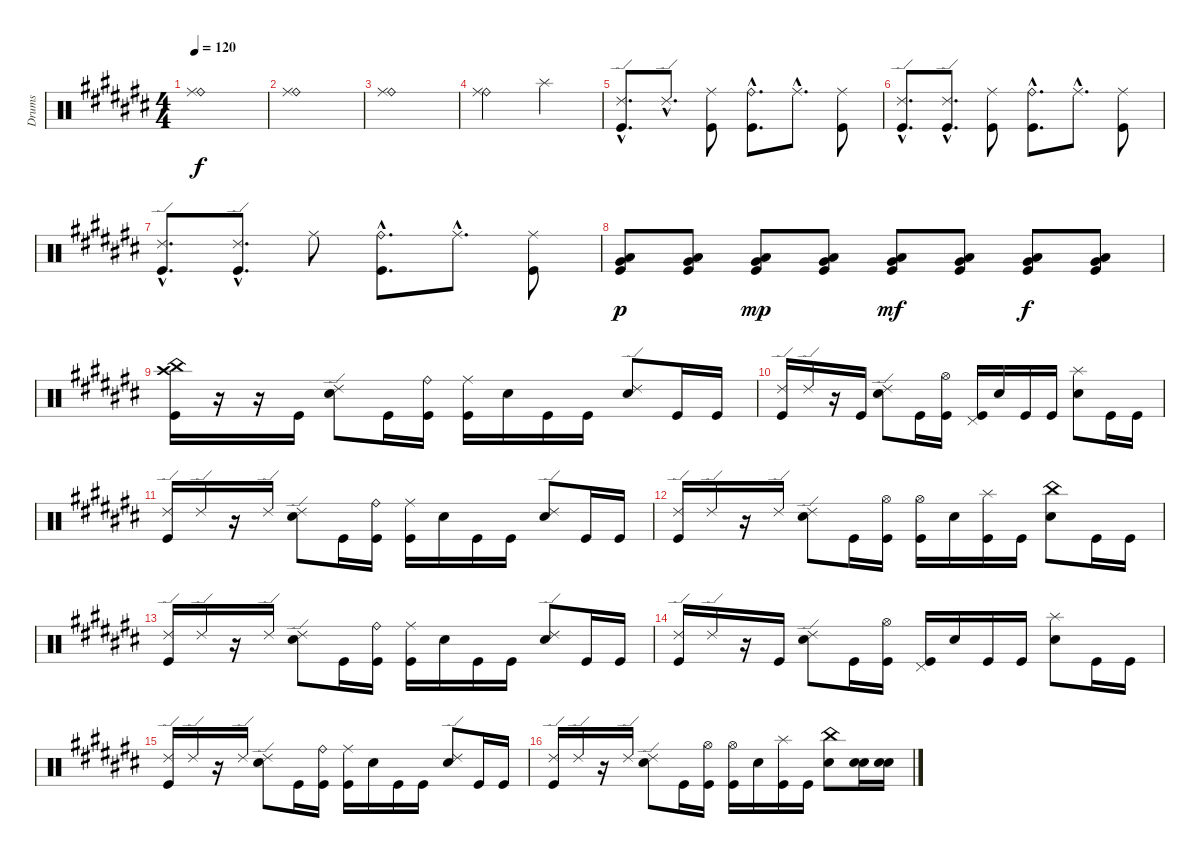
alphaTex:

\track ("Drums" "Drums") {instrument percussion}
\staff {score}
\articulation defaults
\ts (4 4)
\tempo 120
\clef neutral
\ks c#
("Ride (bell)" "Ride (middle)").1{dy f} |
("Ride (bell)" "Ride (middle)").1 |
("Ride (bell)" "Ride (middle)").1 |
("Ride (bell)" "Ride (middle)").2 "Splash (hit)".2 |
("Ride (edge) 2"{hac} "Kick (hit)"{hac}).8{d} "Ride (edge) 2"{hac}.8{d} ("Ride (middle)" "Kick (hit)").8 ("Ride (bell)"{hac} "Kick (hit)"{hac}).8{d} "Ride (middle)"{hac}.8{d} ("Ride (middle)" "Kick (hit)").8 |
("Ride (edge) 2"{hac} "Kick (hit)"{hac}).8{d} ("Ride (edge) 2"{hac} "Kick (hit)"{hac}).8{d} ("Ride (middle)" "Kick (hit)").8 ("Ride (bell)"{hac} "Kick (hit)"{hac}).8{d} "Ride (middle)"{hac}.8{d} ("Ride (middle)" "Kick (hit)").8 |
("Ride (edge) 2"{hac} "Kick (hit)"{hac}).8{d} ("Ride (edge) 2"{hac} "Kick (hit)"{hac}).8{d} "Ride (middle)".8 ("Ride (bell)"{hac} "Kick (hit)"{hac}).8{d} "Ride (middle)"{hac}.8{d} ("Ride (middle)" "Kick (hit)").8 |
("Very Low Tom (hit)" "Low Floor Tom (hit)" "Kick (hit)").8{dy p} ("Very Low Tom (hit)" "Low Floor Tom (hit)" "Kick (hit)").8 ("Very Low Tom (hit)" "Low Floor Tom (hit)" "Kick (hit)").8{dy mp} ("Very Low Tom (hit)" "Low Floor Tom (hit)" "Kick (hit)").8 ("Very Low Tom (hit)" "Low Floor Tom (hit)" "Kick (hit)").8{dy mf} ("Very Low Tom (hit)" "Low Floor Tom (hit)" "Kick (hit)").8 ("Very Low Tom (hit)" "Low Floor Tom (hit)" "Kick (hit)").8{dy f} ("Very Low Tom (hit)" "Low Floor Tom (hit)" "Kick (hit)").8 |
\section ("" "")
("China (hit)" "Crash high (hit)" "Kick (hit)").16 r.16 r.16 "Kick (hit)".16 ("Ride (edge) 2" "Electric Snare (hit)").8 "Kick (hit)".16 ("Ride (bell)" "Kick (hit)").16 ("Ride (middle)" "Kick (hit)").16 "Electric Snare (hit)".16 "Kick (hit)".16 "Kick (hit)".16 ("Ride (edge) 2" "Electric Snare (hit)").8 "Kick (hit)".16 "Kick (hit)".16 |
("Ride (edge) 2" "Kick (hit)").16 "Ride (edge) 2".16 r.16 "Kick (hit)".16 ("Ride (edge) 2" "Electric Snare (hit)").8 "Kick (hit)".16 ("Hi-Hat (open)" "Kick (hit)").16 ("Pedal Hi-Hat (hit)" "Kick (hit)").16 "Electric Snare (hit)".16 "Kick (hit)".16 "Kick (hit)".16 ("Splash (hit)" "Electric Snare (hit)").8 "Kick (hit)".16 "Kick (hit)".16 |
("Ride (edge) 2" "Kick (hit)").16 "Ride (edge) 2".16 r.16 "Ride (edge) 2".16 ("Ride (edge) 2" "Electric Snare (hit)").8 "Kick (hit)".16 ("Ride (bell)" "Kick (hit)").16 ("Ride (middle)" "Kick (hit)").16 "Electric Snare (hit)".16 "Kick (hit)".16 "Kick (hit)".16 ("Ride (edge) 2" "Electric Snare (hit)").8 "Kick (hit)".16 "Kick (hit)".16 |
("Ride (edge) 2" "Kick (hit)").16 "Ride (edge) 2".16 r.16 "Ride (edge) 2".16 ("Ride (edge) 2" "Electric Snare (hit)").8 "Kick (hit)".16 ("Hi-Hat (open)" "Kick (hit)").16 ("Hi-Hat (open)" "Kick (hit)").16 "Electric Snare (hit)".16 ("Splash (hit)" "Kick (hit)").16 "Kick (hit)".16 ("China (hit)" "Electric Snare (hit)").8 "Kick (hit)".16 "Kick (hit)".16 |
("Ride (edge) 2" "Kick (hit)").16 "Ride (edge) 2".16 r.16 "Ride (edge) 2".16 ("Ride (edge) 2" "Electric Snare (hit)").8 "Kick (hit)".16 ("Ride (bell)" "Kick (hit)").16 ("Ride (middle)" "Kick (hit)").16 "Electric Snare (hit)".16 "Kick (hit)".16 "Kick (hit)".16 ("Ride (edge) 2" "Electric Snare (hit)").8 "Kick (hit)".16 "Kick (hit)".16 |
("Ride (edge) 2" "Kick (hit)").16 "Ride (edge) 2".16 r.16 "Kick (hit)".16 ("Ride (edge) 2" "Electric Snare (hit)").8 "Kick (hit)".16 ("Hi-Hat (open)" "Kick (hit)").16 ("Pedal Hi-Hat (hit)" "Kick (hit)").16 "Electric Snare (hit)".16 "Kick (hit)".16 "Kick (hit)".16 ("Splash (hit)" "Electric Snare (hit)").8 "Kick (hit)".16 "Kick (hit)".16 |
("Ride (edge) 2" "Kick (hit)").16 "Ride (edge) 2".16 r.16 "Ride (edge) 2".16 ("Ride (edge) 2" "Electric Snare (hit)").8 "Kick (hit)".16 ("Ride (bell)" "Kick (hit)").16 ("Ride (middle)" "Kick (hit)").16 "Electric Snare (hit)".16 "Kick (hit)".16 "Kick (hit)".16 ("Ride (edge) 2" "Electric Snare (hit)").8 "Kick (hit)".16 "Kick (hit)".16 |
("Ride (edge) 2" "Kick (hit)").16 "Ride (edge) 2".16 r.16 "Ride (edge) 2".16 ("Ride (edge) 2" "Electric Snare (hit)").8 "Kick (hit)".16 ("Hi-Hat (open)" "Kick (hit)").16 ("Hi-Hat (open)" "Kick (hit)").16 "Electric Snare (hit)".16 ("Splash (hit)" "Kick (hit)").16 "Kick (hit)".16 ("China (hit)" "Electric Snare (hit)").8 ("Electric Snare (hit)" "Electric Snare (hit)").16 ("Electric Snare (hit)" "Electric Snare (hit)").16
